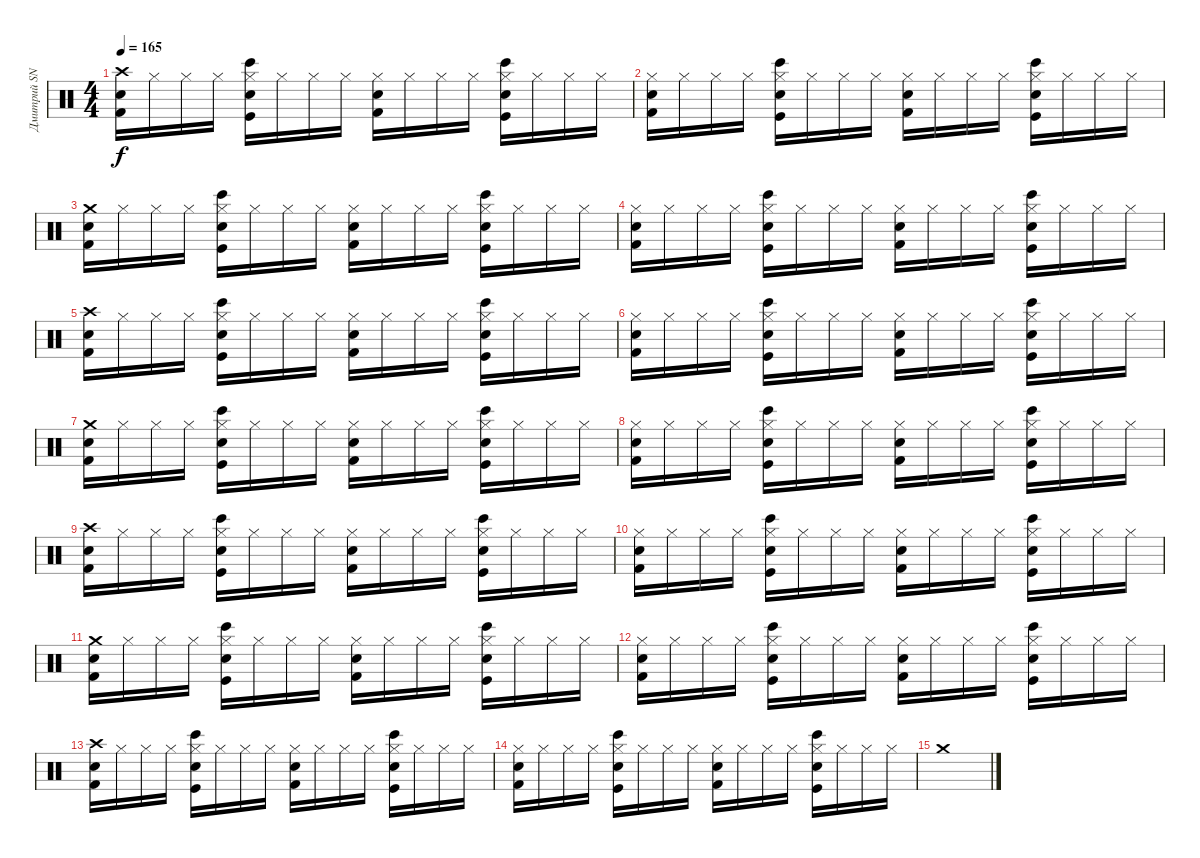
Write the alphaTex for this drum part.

\track ("Дмитрий SNAKE Хакимов" "Дмитрий SN") {instrument percussion}
\staff {score}
\articulation defaults
\ts (4 4)
\tempo 165
\clef neutral
\ks c
("Crash high (hit)" "Electric Snare (hit)" "Kick (hit) 2").16{dy f} "Hi-Hat (closed)".16 "Hi-Hat (closed)".16 "Hi-Hat (closed)".16 ("Hi-Hat (closed)" "Electric Snare (hit)" "Bongo High (hit)" "Kick (hit)").16 "Hi-Hat (closed)".16 "Hi-Hat (closed)".16 "Hi-Hat (closed)".16 ("Hi-Hat (closed)" "Electric Snare (hit)" "Kick (hit) 2").16 "Hi-Hat (closed)".16 "Hi-Hat (closed)".16 "Hi-Hat (closed)".16 ("Hi-Hat (closed)" "Electric Snare (hit)" "Bongo High (hit)" "Kick (hit)").16 "Hi-Hat (closed)".16 "Hi-Hat (closed)".16 "Hi-Hat (closed)".16 |
("Hi-Hat (closed)" "Electric Snare (hit)" "Kick (hit) 2").16 "Hi-Hat (closed)".16 "Hi-Hat (closed)".16 "Hi-Hat (closed)".16 ("Hi-Hat (closed)" "Electric Snare (hit)" "Bongo High (hit)" "Kick (hit)").16 "Hi-Hat (closed)".16 "Hi-Hat (closed)".16 "Hi-Hat (closed)".16 ("Hi-Hat (closed)" "Electric Snare (hit)" "Kick (hit) 2").16 "Hi-Hat (closed)".16 "Hi-Hat (closed)".16 "Hi-Hat (closed)".16 ("Hi-Hat (closed)" "Electric Snare (hit)" "Bongo High (hit)" "Kick (hit)").16 "Hi-Hat (closed)".16 "Hi-Hat (closed)".16 "Hi-Hat (closed)".16 |
("Crash medium (hit)" "Electric Snare (hit)" "Kick (hit) 2").16 "Hi-Hat (closed)".16 "Hi-Hat (closed)".16 "Hi-Hat (closed)".16 ("Hi-Hat (closed)" "Electric Snare (hit)" "Bongo High (hit)" "Kick (hit)").16 "Hi-Hat (closed)".16 "Hi-Hat (closed)".16 "Hi-Hat (closed)".16 ("Hi-Hat (closed)" "Electric Snare (hit)" "Kick (hit) 2").16 "Hi-Hat (closed)".16 "Hi-Hat (closed)".16 "Hi-Hat (closed)".16 ("Hi-Hat (closed)" "Electric Snare (hit)" "Bongo High (hit)" "Kick (hit)").16 "Hi-Hat (closed)".16 "Hi-Hat (closed)".16 "Hi-Hat (closed)".16 |
("Hi-Hat (closed)" "Electric Snare (hit)" "Kick (hit) 2").16 "Hi-Hat (closed)".16 "Hi-Hat (closed)".16 "Hi-Hat (closed)".16 ("Hi-Hat (closed)" "Electric Snare (hit)" "Bongo High (hit)" "Kick (hit)").16 "Hi-Hat (closed)".16 "Hi-Hat (closed)".16 "Hi-Hat (closed)".16 ("Hi-Hat (closed)" "Electric Snare (hit)" "Kick (hit) 2").16 "Hi-Hat (closed)".16 "Hi-Hat (closed)".16 "Hi-Hat (closed)".16 ("Hi-Hat (closed)" "Electric Snare (hit)" "Bongo High (hit)" "Kick (hit)").16 "Hi-Hat (closed)".16 "Hi-Hat (closed)".16 "Hi-Hat (closed)".16 |
("Crash high (hit)" "Electric Snare (hit)" "Kick (hit) 2").16 "Hi-Hat (closed)".16 "Hi-Hat (closed)".16 "Hi-Hat (closed)".16 ("Hi-Hat (closed)" "Electric Snare (hit)" "Bongo High (hit)" "Kick (hit)").16 "Hi-Hat (closed)".16 "Hi-Hat (closed)".16 "Hi-Hat (closed)".16 ("Hi-Hat (closed)" "Electric Snare (hit)" "Kick (hit) 2").16 "Hi-Hat (closed)".16 "Hi-Hat (closed)".16 "Hi-Hat (closed)".16 ("Hi-Hat (closed)" "Electric Snare (hit)" "Bongo High (hit)" "Kick (hit)").16 "Hi-Hat (closed)".16 "Hi-Hat (closed)".16 "Hi-Hat (closed)".16 |
("Hi-Hat (closed)" "Electric Snare (hit)" "Kick (hit) 2").16 "Hi-Hat (closed)".16 "Hi-Hat (closed)".16 "Hi-Hat (closed)".16 ("Hi-Hat (closed)" "Electric Snare (hit)" "Bongo High (hit)" "Kick (hit)").16 "Hi-Hat (closed)".16 "Hi-Hat (closed)".16 "Hi-Hat (closed)".16 ("Hi-Hat (closed)" "Electric Snare (hit)" "Kick (hit) 2").16 "Hi-Hat (closed)".16 "Hi-Hat (closed)".16 "Hi-Hat (closed)".16 ("Hi-Hat (closed)" "Electric Snare (hit)" "Bongo High (hit)" "Kick (hit)").16 "Hi-Hat (closed)".16 "Hi-Hat (closed)".16 "Hi-Hat (closed)".16 |
("Crash medium (hit)" "Electric Snare (hit)" "Kick (hit) 2").16 "Hi-Hat (closed)".16 "Hi-Hat (closed)".16 "Hi-Hat (closed)".16 ("Hi-Hat (closed)" "Electric Snare (hit)" "Bongo High (hit)" "Kick (hit)").16 "Hi-Hat (closed)".16 "Hi-Hat (closed)".16 "Hi-Hat (closed)".16 ("Hi-Hat (closed)" "Electric Snare (hit)" "Kick (hit) 2").16 "Hi-Hat (closed)".16 "Hi-Hat (closed)".16 "Hi-Hat (closed)".16 ("Hi-Hat (closed)" "Electric Snare (hit)" "Bongo High (hit)" "Kick (hit)").16 "Hi-Hat (closed)".16 "Hi-Hat (closed)".16 "Hi-Hat (closed)".16 |
("Hi-Hat (closed)" "Electric Snare (hit)" "Kick (hit) 2").16 "Hi-Hat (closed)".16 "Hi-Hat (closed)".16 "Hi-Hat (closed)".16 ("Hi-Hat (closed)" "Electric Snare (hit)" "Bongo High (hit)" "Kick (hit)").16 "Hi-Hat (closed)".16 "Hi-Hat (closed)".16 "Hi-Hat (closed)".16 ("Hi-Hat (closed)" "Electric Snare (hit)" "Kick (hit) 2").16 "Hi-Hat (closed)".16 "Hi-Hat (closed)".16 "Hi-Hat (closed)".16 ("Hi-Hat (closed)" "Electric Snare (hit)" "Bongo High (hit)" "Kick (hit)").16 "Hi-Hat (closed)".16 "Hi-Hat (closed)".16 "Hi-Hat (closed)".16 |
("Crash high (hit)" "Electric Snare (hit)" "Kick (hit) 2").16 "Hi-Hat (closed)".16 "Hi-Hat (closed)".16 "Hi-Hat (closed)".16 ("Hi-Hat (closed)" "Electric Snare (hit)" "Bongo High (hit)" "Kick (hit)").16 "Hi-Hat (closed)".16 "Hi-Hat (closed)".16 "Hi-Hat (closed)".16 ("Hi-Hat (closed)" "Electric Snare (hit)" "Kick (hit) 2").16 "Hi-Hat (closed)".16 "Hi-Hat (closed)".16 "Hi-Hat (closed)".16 ("Hi-Hat (closed)" "Electric Snare (hit)" "Bongo High (hit)" "Kick (hit)").16 "Hi-Hat (closed)".16 "Hi-Hat (closed)".16 "Hi-Hat (closed)".16 |
("Hi-Hat (closed)" "Electric Snare (hit)" "Kick (hit) 2").16 "Hi-Hat (closed)".16 "Hi-Hat (closed)".16 "Hi-Hat (closed)".16 ("Hi-Hat (closed)" "Electric Snare (hit)" "Bongo High (hit)" "Kick (hit)").16 "Hi-Hat (closed)".16 "Hi-Hat (closed)".16 "Hi-Hat (closed)".16 ("Hi-Hat (closed)" "Electric Snare (hit)" "Kick (hit) 2").16 "Hi-Hat (closed)".16 "Hi-Hat (closed)".16 "Hi-Hat (closed)".16 ("Hi-Hat (closed)" "Electric Snare (hit)" "Bongo High (hit)" "Kick (hit)").16 "Hi-Hat (closed)".16 "Hi-Hat (closed)".16 "Hi-Hat (closed)".16 |
("Crash medium (hit)" "Electric Snare (hit)" "Kick (hit) 2").16 "Hi-Hat (closed)".16 "Hi-Hat (closed)".16 "Hi-Hat (closed)".16 ("Hi-Hat (closed)" "Electric Snare (hit)" "Bongo High (hit)" "Kick (hit)").16 "Hi-Hat (closed)".16 "Hi-Hat (closed)".16 "Hi-Hat (closed)".16 ("Hi-Hat (closed)" "Electric Snare (hit)" "Kick (hit) 2").16 "Hi-Hat (closed)".16 "Hi-Hat (closed)".16 "Hi-Hat (closed)".16 ("Hi-Hat (closed)" "Electric Snare (hit)" "Bongo High (hit)" "Kick (hit)").16 "Hi-Hat (closed)".16 "Hi-Hat (closed)".16 "Hi-Hat (closed)".16 |
("Hi-Hat (closed)" "Electric Snare (hit)" "Kick (hit) 2").16 "Hi-Hat (closed)".16 "Hi-Hat (closed)".16 "Hi-Hat (closed)".16 ("Hi-Hat (closed)" "Electric Snare (hit)" "Bongo High (hit)" "Kick (hit)").16 "Hi-Hat (closed)".16 "Hi-Hat (closed)".16 "Hi-Hat (closed)".16 ("Hi-Hat (closed)" "Electric Snare (hit)" "Kick (hit) 2").16 "Hi-Hat (closed)".16 "Hi-Hat (closed)".16 "Hi-Hat (closed)".16 ("Hi-Hat (closed)" "Electric Snare (hit)" "Bongo High (hit)" "Kick (hit)").16 "Hi-Hat (closed)".16 "Hi-Hat (closed)".16 "Hi-Hat (closed)".16 |
("Crash high (hit)" "Electric Snare (hit)" "Kick (hit) 2").16 "Hi-Hat (closed)".16 "Hi-Hat (closed)".16 "Hi-Hat (closed)".16 ("Hi-Hat (closed)" "Electric Snare (hit)" "Bongo High (hit)" "Kick (hit)").16 "Hi-Hat (closed)".16 "Hi-Hat (closed)".16 "Hi-Hat (closed)".16 ("Hi-Hat (closed)" "Electric Snare (hit)" "Kick (hit) 2").16 "Hi-Hat (closed)".16 "Hi-Hat (closed)".16 "Hi-Hat (closed)".16 ("Hi-Hat (closed)" "Electric Snare (hit)" "Bongo High (hit)" "Kick (hit)").16 "Hi-Hat (closed)".16 "Hi-Hat (closed)".16 "Hi-Hat (closed)".16 |
("Hi-Hat (closed)" "Electric Snare (hit)" "Kick (hit) 2").16 "Hi-Hat (closed)".16 "Hi-Hat (closed)".16 "Hi-Hat (closed)".16 ("Hi-Hat (closed)" "Electric Snare (hit)" "Bongo High (hit)" "Kick (hit)").16 "Hi-Hat (closed)".16 "Hi-Hat (closed)".16 "Hi-Hat (closed)".16 ("Hi-Hat (closed)" "Electric Snare (hit)" "Kick (hit) 2").16 "Hi-Hat (closed)".16 "Hi-Hat (closed)".16 "Hi-Hat (closed)".16 ("Hi-Hat (closed)" "Electric Snare (hit)" "Bongo High (hit)" "Kick (hit)").16 "Hi-Hat (closed)".16 "Hi-Hat (closed)".16 "Hi-Hat (closed)".16 |
"Crash medium (hit)".1
